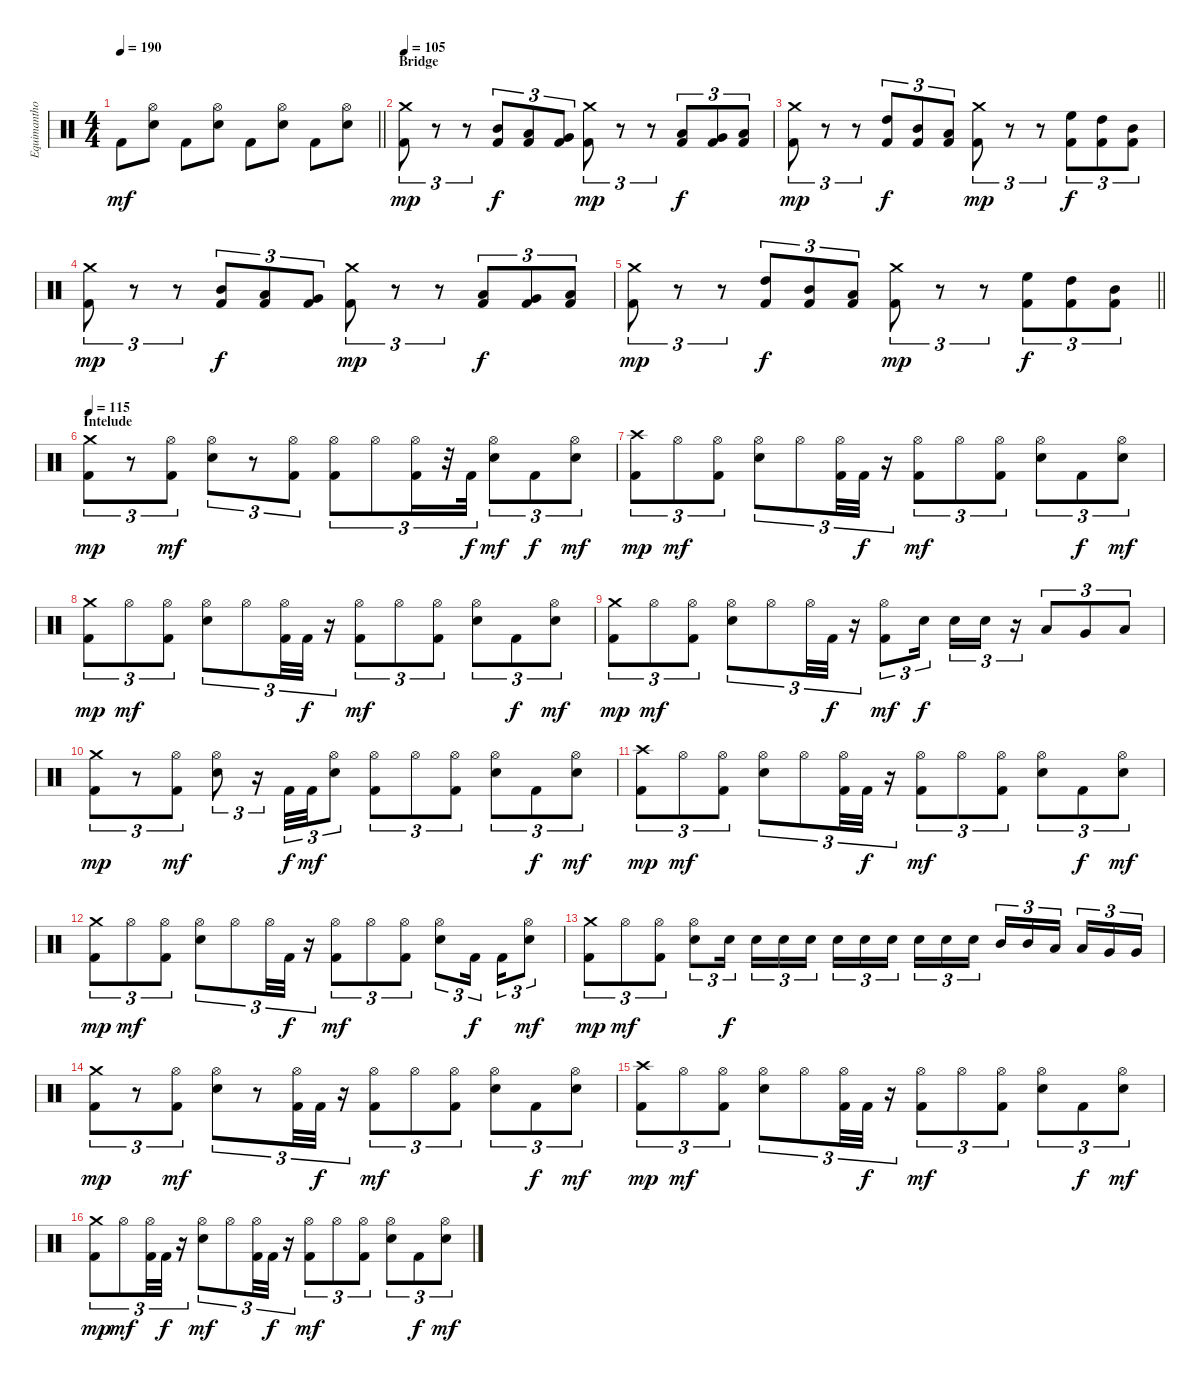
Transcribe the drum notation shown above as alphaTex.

\track ("Equimanthorn" "Equimantho") {instrument percussion}
\staff {score}
\articulation defaults
\ts (4 4)
\tempo 190
\clef neutral
\barLineRight lightlight
\ks c "Kick (hit) 2".8{dy mf}
("Hi-Hat (open)" "Electric Snare (hit)").8 "Kick (hit) 2".8 ("Hi-Hat (open)" "Electric Snare (hit)").8 "Kick (hit) 2".8 ("Hi-Hat (open)" "Electric Snare (hit)").8 "Kick (hit) 2".8 ("Hi-Hat (open)" "Electric Snare (hit)").8 |
\section ("" "Bridge")
\tempo 105
("Crash medium (hit)" "Kick (hit) 2").8{tu (3 2) dy mp} r.8{tu (3 2)} r.8{tu (3 2)} ("Mid Tom (hit)" "Kick (hit) 2").8{tu (3 2) dy f} ("Low Tom (hit)" "Kick (hit) 2").8{tu (3 2)} ("Very Low Tom (hit)" "Kick (hit) 2").8{tu (3 2)} ("Crash medium (hit)" "Kick (hit) 2").8{tu (3 2) dy mp} r.8{tu (3 2)} r.8{tu (3 2)} ("Low Tom (hit)" "Kick (hit) 2").8{tu (3 2) dy f} ("Very Low Tom (hit)" "Kick (hit) 2").8{tu (3 2)} ("Low Floor Tom (hit)" "Kick (hit) 2").8{tu (3 2)} |
("Crash medium (hit)" "Kick (hit) 2").8{tu (3 2) dy mp} r.8{tu (3 2)} r.8{tu (3 2)} ("High Tom (hit)" "Kick (hit) 2").8{tu (3 2) dy f} ("Mid Tom (hit)" "Kick (hit) 2").8{tu (3 2)} ("Low Tom (hit)" "Kick (hit) 2").8{tu (3 2)} ("Crash medium (hit)" "Kick (hit) 2").8{tu (3 2) dy mp} r.8{tu (3 2)} r.8{tu (3 2)} ("High Floor Tom (hit)" "Kick (hit) 2").8{tu (3 2) dy f} ("High Tom (hit)" "Kick (hit) 2").8{tu (3 2)} ("Mid Tom (hit)" "Kick (hit) 2").8{tu (3 2)} |
("Crash medium (hit)" "Kick (hit) 2").8{tu (3 2) dy mp} r.8{tu (3 2)} r.8{tu (3 2)} ("Mid Tom (hit)" "Kick (hit) 2").8{tu (3 2) dy f} ("Low Tom (hit)" "Kick (hit) 2").8{tu (3 2)} ("Very Low Tom (hit)" "Kick (hit) 2").8{tu (3 2)} ("Crash medium (hit)" "Kick (hit) 2").8{tu (3 2) dy mp} r.8{tu (3 2)} r.8{tu (3 2)} ("Low Tom (hit)" "Kick (hit) 2").8{tu (3 2) dy f} ("Very Low Tom (hit)" "Kick (hit) 2").8{tu (3 2)} ("Low Floor Tom (hit)" "Kick (hit) 2").8{tu (3 2)} |
\barLineRight lightlight
("Crash medium (hit)" "Kick (hit) 2").8{tu (3 2) dy mp} r.8{tu (3 2)} r.8{tu (3 2)} ("High Tom (hit)" "Kick (hit) 2").8{tu (3 2) dy f} ("Mid Tom (hit)" "Kick (hit) 2").8{tu (3 2)} ("Low Tom (hit)" "Kick (hit) 2").8{tu (3 2)} ("Crash medium (hit)" "Kick (hit) 2").8{tu (3 2) dy mp} r.8{tu (3 2)} r.8{tu (3 2)} ("High Floor Tom (hit)" "Kick (hit) 2").8{tu (3 2) dy f} ("High Tom (hit)" "Kick (hit) 2").8{tu (3 2)} ("Mid Tom (hit)" "Kick (hit) 2").8{tu (3 2)} |
\section ("" "Intelude")
\tempo 115
("Crash medium (hit)" "Kick (hit) 2").8{tu (3 2) dy mp} r.8{tu (3 2)} ("Hi-Hat (open)" "Kick (hit) 2").8{tu (3 2) dy mf} ("Hi-Hat (open)" "Electric Snare (hit)").8{tu (3 2)} r.8{tu (3 2)} ("Hi-Hat (open)" "Kick (hit) 2").8{tu (3 2)} ("Hi-Hat (open)" "Kick (hit) 2").8{tu (3 2)} "Hi-Hat (open)".8{tu (3 2)} ("Hi-Hat (open)" "Kick (hit) 2").16{tu (3 2)} r.32{tu (3 2)} "Kick (hit) 2".32{tu (3 2) dy f} ("Hi-Hat (open)" "Electric Snare (hit)").8{tu (3 2) dy mf} "Kick (hit) 2".8{tu (3 2) dy f} ("Hi-Hat (open)" "Electric Snare (hit)").8{tu (3 2) dy mf} |
("Crash high (hit)" "Kick (hit) 2").8{tu (3 2) dy mp} "Hi-Hat (open)".8{tu (3 2) dy mf} ("Hi-Hat (open)" "Kick (hit) 2").8{tu (3 2)} ("Hi-Hat (open)" "Electric Snare (hit)").8{tu (3 2)} "Hi-Hat (open)".8{tu (3 2)} ("Hi-Hat (open)" "Kick (hit) 2").32{tu (3 2)} "Kick (hit) 2".32{tu (3 2) dy f} r.16{tu (3 2)} ("Hi-Hat (open)" "Kick (hit) 2").8{tu (3 2) dy mf} "Hi-Hat (open)".8{tu (3 2)} ("Hi-Hat (open)" "Kick (hit) 2").8{tu (3 2)} ("Hi-Hat (open)" "Electric Snare (hit)").8{tu (3 2)} "Kick (hit) 2".8{tu (3 2) dy f} ("Hi-Hat (open)" "Electric Snare (hit)").8{tu (3 2) dy mf} |
("Crash medium (hit)" "Kick (hit) 2").8{tu (3 2) dy mp} "Hi-Hat (open)".8{tu (3 2) dy mf} ("Hi-Hat (open)" "Kick (hit) 2").8{tu (3 2)} ("Hi-Hat (open)" "Electric Snare (hit)").8{tu (3 2)} "Hi-Hat (open)".8{tu (3 2)} ("Hi-Hat (open)" "Kick (hit) 2").32{tu (3 2)} "Kick (hit) 2".32{tu (3 2) dy f} r.16{tu (3 2)} ("Hi-Hat (open)" "Kick (hit) 2").8{tu (3 2) dy mf} "Hi-Hat (open)".8{tu (3 2)} ("Hi-Hat (open)" "Kick (hit) 2").8{tu (3 2)} ("Hi-Hat (open)" "Electric Snare (hit)").8{tu (3 2)} "Kick (hit) 2".8{tu (3 2) dy f} ("Hi-Hat (open)" "Electric Snare (hit)").8{tu (3 2) dy mf} |
("Crash medium (hit)" "Kick (hit) 2").8{tu (3 2) dy mp} "Hi-Hat (open)".8{tu (3 2) dy mf} ("Hi-Hat (open)" "Kick (hit) 2").8{tu (3 2)} ("Hi-Hat (open)" "Electric Snare (hit)").8{tu (3 2)} "Hi-Hat (open)".8{tu (3 2)} "Hi-Hat (open)".32{tu (3 2)} "Kick (hit) 2".32{tu (3 2) dy f} r.16{tu (3 2)} ("Hi-Hat (open)" "Kick (hit) 2").8{tu (3 2) dy mf} "Electric Snare (hit)".16{tu (3 2) dy f beam splitsecondary} "Electric Snare (hit)".16{tu (3 2)} "Electric Snare (hit)".16{tu (3 2)} r.16{tu (3 2)} "Low Tom (hit)".8{tu (3 2)} "Very Low Tom (hit)".8{tu (3 2)} "Low Floor Tom (hit)".8{tu (3 2)} |
("Crash medium (hit)" "Kick (hit) 2").8{tu (3 2) dy mp} r.8{tu (3 2)} ("Hi-Hat (open)" "Kick (hit) 2").8{tu (3 2) dy mf} ("Hi-Hat (open)" "Electric Snare (hit)").8{tu (3 2)} r.16{tu (3 2)} "Kick (hit) 2".32{tu (3 2) dy f} "Kick (hit) 2".32{tu (3 2) dy mf} ("Hi-Hat (open)" "Electric Snare (hit)").8{tu (3 2)} ("Hi-Hat (open)" "Kick (hit) 2").8{tu (3 2)} "Hi-Hat (open)".8{tu (3 2)} ("Hi-Hat (open)" "Kick (hit) 2").8{tu (3 2)} ("Hi-Hat (open)" "Electric Snare (hit)").8{tu (3 2)} "Kick (hit) 2".8{tu (3 2) dy f} ("Hi-Hat (open)" "Electric Snare (hit)").8{tu (3 2) dy mf} |
("Crash high (hit)" "Kick (hit) 2").8{tu (3 2) dy mp} "Hi-Hat (open)".8{tu (3 2) dy mf} ("Hi-Hat (open)" "Kick (hit) 2").8{tu (3 2)} ("Hi-Hat (open)" "Electric Snare (hit)").8{tu (3 2)} "Hi-Hat (open)".8{tu (3 2)} ("Hi-Hat (open)" "Kick (hit) 2").32{tu (3 2)} "Kick (hit) 2".32{tu (3 2) dy f} r.16{tu (3 2)} ("Hi-Hat (open)" "Kick (hit) 2").8{tu (3 2) dy mf} "Hi-Hat (open)".8{tu (3 2)} ("Hi-Hat (open)" "Kick (hit) 2").8{tu (3 2)} ("Hi-Hat (open)" "Electric Snare (hit)").8{tu (3 2)} "Kick (hit) 2".8{tu (3 2) dy f} ("Hi-Hat (open)" "Electric Snare (hit)").8{tu (3 2) dy mf} |
("Crash medium (hit)" "Kick (hit) 2").8{tu (3 2) dy mp} "Hi-Hat (open)".8{tu (3 2) dy mf} ("Hi-Hat (open)" "Kick (hit) 2").8{tu (3 2)} ("Hi-Hat (open)" "Electric Snare (hit)").8{tu (3 2)} "Hi-Hat (open)".8{tu (3 2)} "Hi-Hat (open)".32{tu (3 2)} "Kick (hit) 2".32{tu (3 2) dy f} r.16{tu (3 2)} ("Hi-Hat (open)" "Kick (hit) 2").8{tu (3 2) dy mf} "Hi-Hat (open)".8{tu (3 2)} ("Hi-Hat (open)" "Kick (hit) 2").8{tu (3 2)} ("Hi-Hat (open)" "Electric Snare (hit)").8{tu (3 2)} "Kick (hit) 2".16{tu (3 2) dy f beam splitsecondary} "Kick (hit) 2".16{tu (3 2)} ("Hi-Hat (open)" "Electric Snare (hit)").8{tu (3 2) dy mf} |
("Crash medium (hit)" "Kick (hit) 2").8{tu (3 2) dy mp} "Hi-Hat (open)".8{tu (3 2) dy mf} ("Hi-Hat (open)" "Kick (hit) 2").8{tu (3 2)} ("Hi-Hat (open)" "Electric Snare (hit)").8{tu (3 2)} "Electric Snare (hit)".16{tu (3 2) dy f beam splitsecondary} "Electric Snare (hit)".16{tu (3 2)} "Electric Snare (hit)".16{tu (3 2)} "Electric Snare (hit)".16{tu (3 2)} "Electric Snare (hit)".16{tu (3 2)} "Electric Snare (hit)".16{tu (3 2)} "Electric Snare (hit)".16{tu (3 2) beam splitsecondary} "Electric Snare (hit)".16{tu (3 2)} "Electric Snare (hit)".16{tu (3 2)} "Electric Snare (hit)".16{tu (3 2)} "Mid Tom (hit)".16{tu (3 2)} "Mid Tom (hit)".16{tu (3 2)} "Low Tom (hit)".16{tu (3 2) beam splitsecondary} "Low Tom (hit)".16{tu (3 2)} "Very Low Tom (hit)".16{tu (3 2)} "Very Low Tom (hit)".16{tu (3 2)} |
("Crash medium (hit)" "Kick (hit) 2").8{tu (3 2) dy mp} r.8{tu (3 2)} ("Hi-Hat (open)" "Kick (hit) 2").8{tu (3 2) dy mf} ("Hi-Hat (open)" "Electric Snare (hit)").8{tu (3 2)} r.8{tu (3 2)} ("Hi-Hat (open)" "Kick (hit) 2").32{tu (3 2)} "Kick (hit) 2".32{tu (3 2) dy f} r.16{tu (3 2)} ("Hi-Hat (open)" "Kick (hit) 2").8{tu (3 2) dy mf} "Hi-Hat (open)".8{tu (3 2)} ("Hi-Hat (open)" "Kick (hit) 2").8{tu (3 2)} ("Hi-Hat (open)" "Electric Snare (hit)").8{tu (3 2)} "Kick (hit) 2".8{tu (3 2) dy f} ("Hi-Hat (open)" "Electric Snare (hit)").8{tu (3 2) dy mf} |
("Crash high (hit)" "Kick (hit) 2").8{tu (3 2) dy mp} "Hi-Hat (open)".8{tu (3 2) dy mf} ("Hi-Hat (open)" "Kick (hit) 2").8{tu (3 2)} ("Hi-Hat (open)" "Electric Snare (hit)").8{tu (3 2)} "Hi-Hat (open)".8{tu (3 2)} ("Hi-Hat (open)" "Kick (hit) 2").32{tu (3 2)} "Kick (hit) 2".32{tu (3 2) dy f} r.16{tu (3 2)} ("Hi-Hat (open)" "Kick (hit) 2").8{tu (3 2) dy mf} "Hi-Hat (open)".8{tu (3 2)} ("Hi-Hat (open)" "Kick (hit) 2").8{tu (3 2)} ("Hi-Hat (open)" "Electric Snare (hit)").8{tu (3 2)} "Kick (hit) 2".8{tu (3 2) dy f} ("Hi-Hat (open)" "Electric Snare (hit)").8{tu (3 2) dy mf} |
("Crash medium (hit)" "Kick (hit) 2").8{tu (3 2) dy mp} "Hi-Hat (open)".8{tu (3 2) dy mf} ("Hi-Hat (open)" "Kick (hit) 2").32{tu (3 2)} "Kick (hit) 2".32{tu (3 2) dy f} r.16{tu (3 2)} ("Hi-Hat (open)" "Electric Snare (hit)").8{tu (3 2) dy mf} "Hi-Hat (open)".8{tu (3 2)} ("Hi-Hat (open)" "Kick (hit) 2").32{tu (3 2)} "Kick (hit) 2".32{tu (3 2) dy f} r.16{tu (3 2)} ("Hi-Hat (open)" "Kick (hit) 2").8{tu (3 2) dy mf} "Hi-Hat (open)".8{tu (3 2)} ("Hi-Hat (open)" "Kick (hit) 2").8{tu (3 2)} ("Hi-Hat (open)" "Electric Snare (hit)").8{tu (3 2)} "Kick (hit) 2".8{tu (3 2) dy f} ("Hi-Hat (open)" "Electric Snare (hit)").8{tu (3 2) dy mf}
